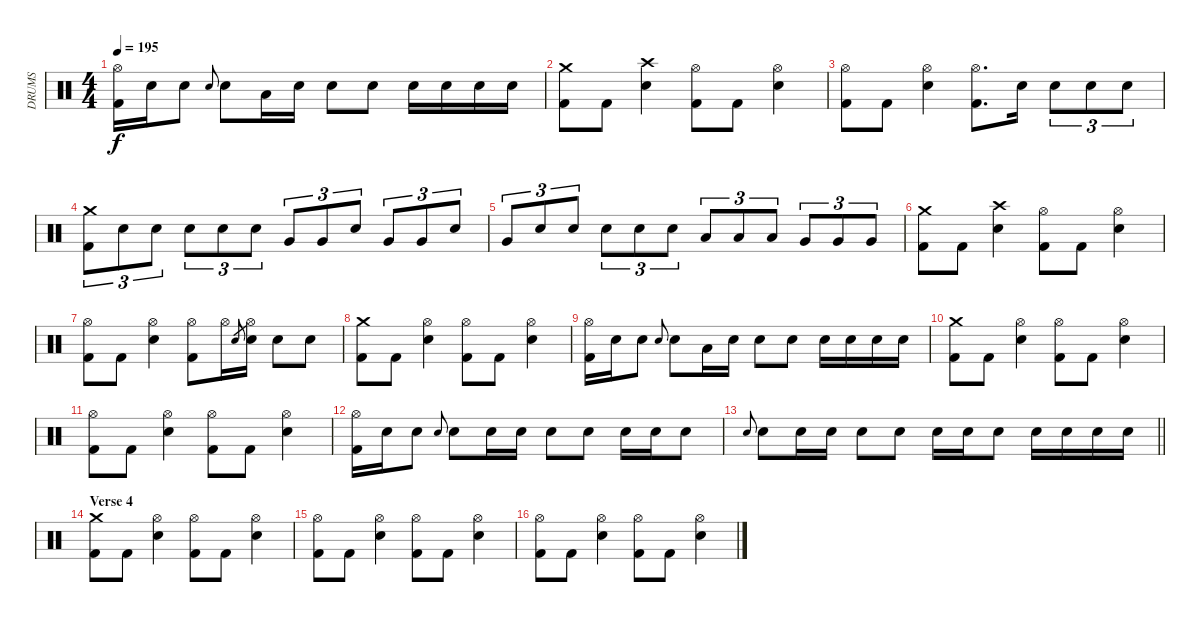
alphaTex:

\track ("DRUMS" "DRUMS") {instrument percussion}
\staff {score}
\articulation defaults
\ts (4 4)
\tempo 195
\clef neutral
\ks c
("Hi-Hat (open)" "Kick (hit) 2").16{dy f} "Snare (hit) 2".16 "Snare (hit) 2".8 "Snare (hit) 2".8{gr onbeat} "Snare (hit) 2".8 "Low Tom (hit)".16 "Snare (hit) 2".16 "Snare (hit) 2".8 "Snare (hit) 2".8 "Snare (hit) 2".16 "Snare (hit) 2".16 "Snare (hit) 2".16 "Snare (hit) 2".16 |
("Crash medium (hit)" "Kick (hit) 2").8 "Kick (hit) 2".8 ("Crash high (hit)" "Snare (hit) 2").4 ("Hi-Hat (open)" "Kick (hit) 2").8 "Kick (hit) 2".8 ("Hi-Hat (open)" "Snare (hit) 2").4 |
("Hi-Hat (open)" "Kick (hit) 2").8 "Kick (hit) 2".8 ("Hi-Hat (open)" "Snare (hit) 2").4 ("Hi-Hat (open)" "Kick (hit) 2").8{d} "Snare (hit) 2".16 "Snare (hit) 2".8{tu (3 2)} "Snare (hit) 2".8{tu (3 2)} "Snare (hit) 2".8{tu (3 2)} |
("Crash medium (hit)" "Kick (hit) 2").8{tu (3 2)} "Snare (hit) 2".8{tu (3 2)} "Snare (hit) 2".8{tu (3 2)} "Snare (hit) 2".8{tu (3 2)} "Snare (hit) 2".8{tu (3 2)} "Snare (hit) 2".8{tu (3 2)} "Very Low Tom (hit)".8{tu (3 2)} "Very Low Tom (hit)".8{tu (3 2)} "Snare (hit) 2".8{tu (3 2)} "Very Low Tom (hit)".8{tu (3 2)} "Very Low Tom (hit)".8{tu (3 2)} "Snare (hit) 2".8{tu (3 2)} |
"Very Low Tom (hit)".8{tu (3 2)} "Snare (hit) 2".8{tu (3 2)} "Snare (hit) 2".8{tu (3 2)} "Snare (hit) 2".8{tu (3 2)} "Snare (hit) 2".8{tu (3 2)} "Snare (hit) 2".8{tu (3 2)} "Low Tom (hit)".8{tu (3 2)} "Low Tom (hit)".8{tu (3 2)} "Low Tom (hit)".8{tu (3 2)} "Very Low Tom (hit)".8{tu (3 2)} "Very Low Tom (hit)".8{tu (3 2)} "Very Low Tom (hit)".8{tu (3 2)} |
("Crash medium (hit)" "Kick (hit) 2").8 "Kick (hit) 2".8 ("Crash high (hit)" "Snare (hit) 2").4 ("Hi-Hat (open)" "Kick (hit) 2").8 "Kick (hit) 2".8 ("Hi-Hat (open)" "Snare (hit) 2").4 |
("Hi-Hat (open)" "Kick (hit) 2").8 "Kick (hit) 2".8 ("Hi-Hat (open)" "Snare (hit) 2").4 ("Hi-Hat (open)" "Kick (hit) 2").8 "Hi-Hat (open)".16 "Snare (hit) 2".8{gr} ("Hi-Hat (open)" "Snare (hit) 2").16 "Snare (hit) 2".8 "Snare (hit) 2".8 |
("Crash medium (hit)" "Kick (hit) 2").8 "Kick (hit) 2".8 ("Hi-Hat (open)" "Snare (hit) 2").4 ("Hi-Hat (open)" "Kick (hit) 2").8 "Kick (hit) 2".8 ("Hi-Hat (open)" "Snare (hit) 2").4 |
("Hi-Hat (open)" "Kick (hit) 2").16 "Snare (hit) 2".16 "Snare (hit) 2".8 "Snare (hit) 2".8{gr onbeat} "Snare (hit) 2".8 "Low Tom (hit)".16 "Snare (hit) 2".16 "Snare (hit) 2".8 "Snare (hit) 2".8 "Snare (hit) 2".16 "Snare (hit) 2".16 "Snare (hit) 2".16 "Snare (hit) 2".16 |
("Crash medium (hit)" "Kick (hit) 2").8 "Kick (hit) 2".8 ("Hi-Hat (open)" "Snare (hit) 2").4 ("Hi-Hat (open)" "Kick (hit) 2").8 "Kick (hit) 2".8 ("Hi-Hat (open)" "Snare (hit) 2").4 |
("Hi-Hat (open)" "Kick (hit) 2").8 "Kick (hit) 2".8 ("Hi-Hat (open)" "Snare (hit) 2").4 ("Hi-Hat (open)" "Kick (hit) 2").8 "Kick (hit) 2".8 ("Hi-Hat (open)" "Snare (hit) 2").4 |
("Hi-Hat (open)" "Kick (hit) 2").16 "Snare (hit) 2".16 "Snare (hit) 2".8 "Snare (hit) 2".8{gr onbeat} "Snare (hit) 2".8 "Snare (hit) 2".16 "Snare (hit) 2".16 "Snare (hit) 2".8 "Snare (hit) 2".8 "Snare (hit) 2".16 "Snare (hit) 2".16 "Snare (hit) 2".8 |
\barLineRight lightlight "Snare (hit) 2".8{gr onbeat} "Snare (hit) 2".8 "Snare (hit) 2".16 "Snare (hit) 2".16 "Snare (hit) 2".8 "Snare (hit) 2".8 "Snare (hit) 2".16 "Snare (hit) 2".16 "Snare (hit) 2".8 "Snare (hit) 2".16 "Snare (hit) 2".16 "Snare (hit) 2".16 "Snare (hit) 2".16
|
\section ("" "Verse 4")
("Crash medium (hit)" "Kick (hit) 2").8 "Kick (hit) 2".8 ("Hi-Hat (open)" "Snare (hit) 2").4 ("Hi-Hat (open)" "Kick (hit) 2").8 "Kick (hit) 2".8 ("Hi-Hat (open)" "Snare (hit) 2").4 |
("Hi-Hat (open)" "Kick (hit) 2").8 "Kick (hit) 2".8 ("Hi-Hat (open)" "Snare (hit) 2").4 ("Hi-Hat (open)" "Kick (hit) 2").8 "Kick (hit) 2".8 ("Hi-Hat (open)" "Snare (hit) 2").4 |
("Hi-Hat (open)" "Kick (hit) 2").8 "Kick (hit) 2".8 ("Hi-Hat (open)" "Snare (hit) 2").4 ("Hi-Hat (open)" "Kick (hit) 2").8 "Kick (hit) 2".8 ("Hi-Hat (open)" "Snare (hit) 2").4
